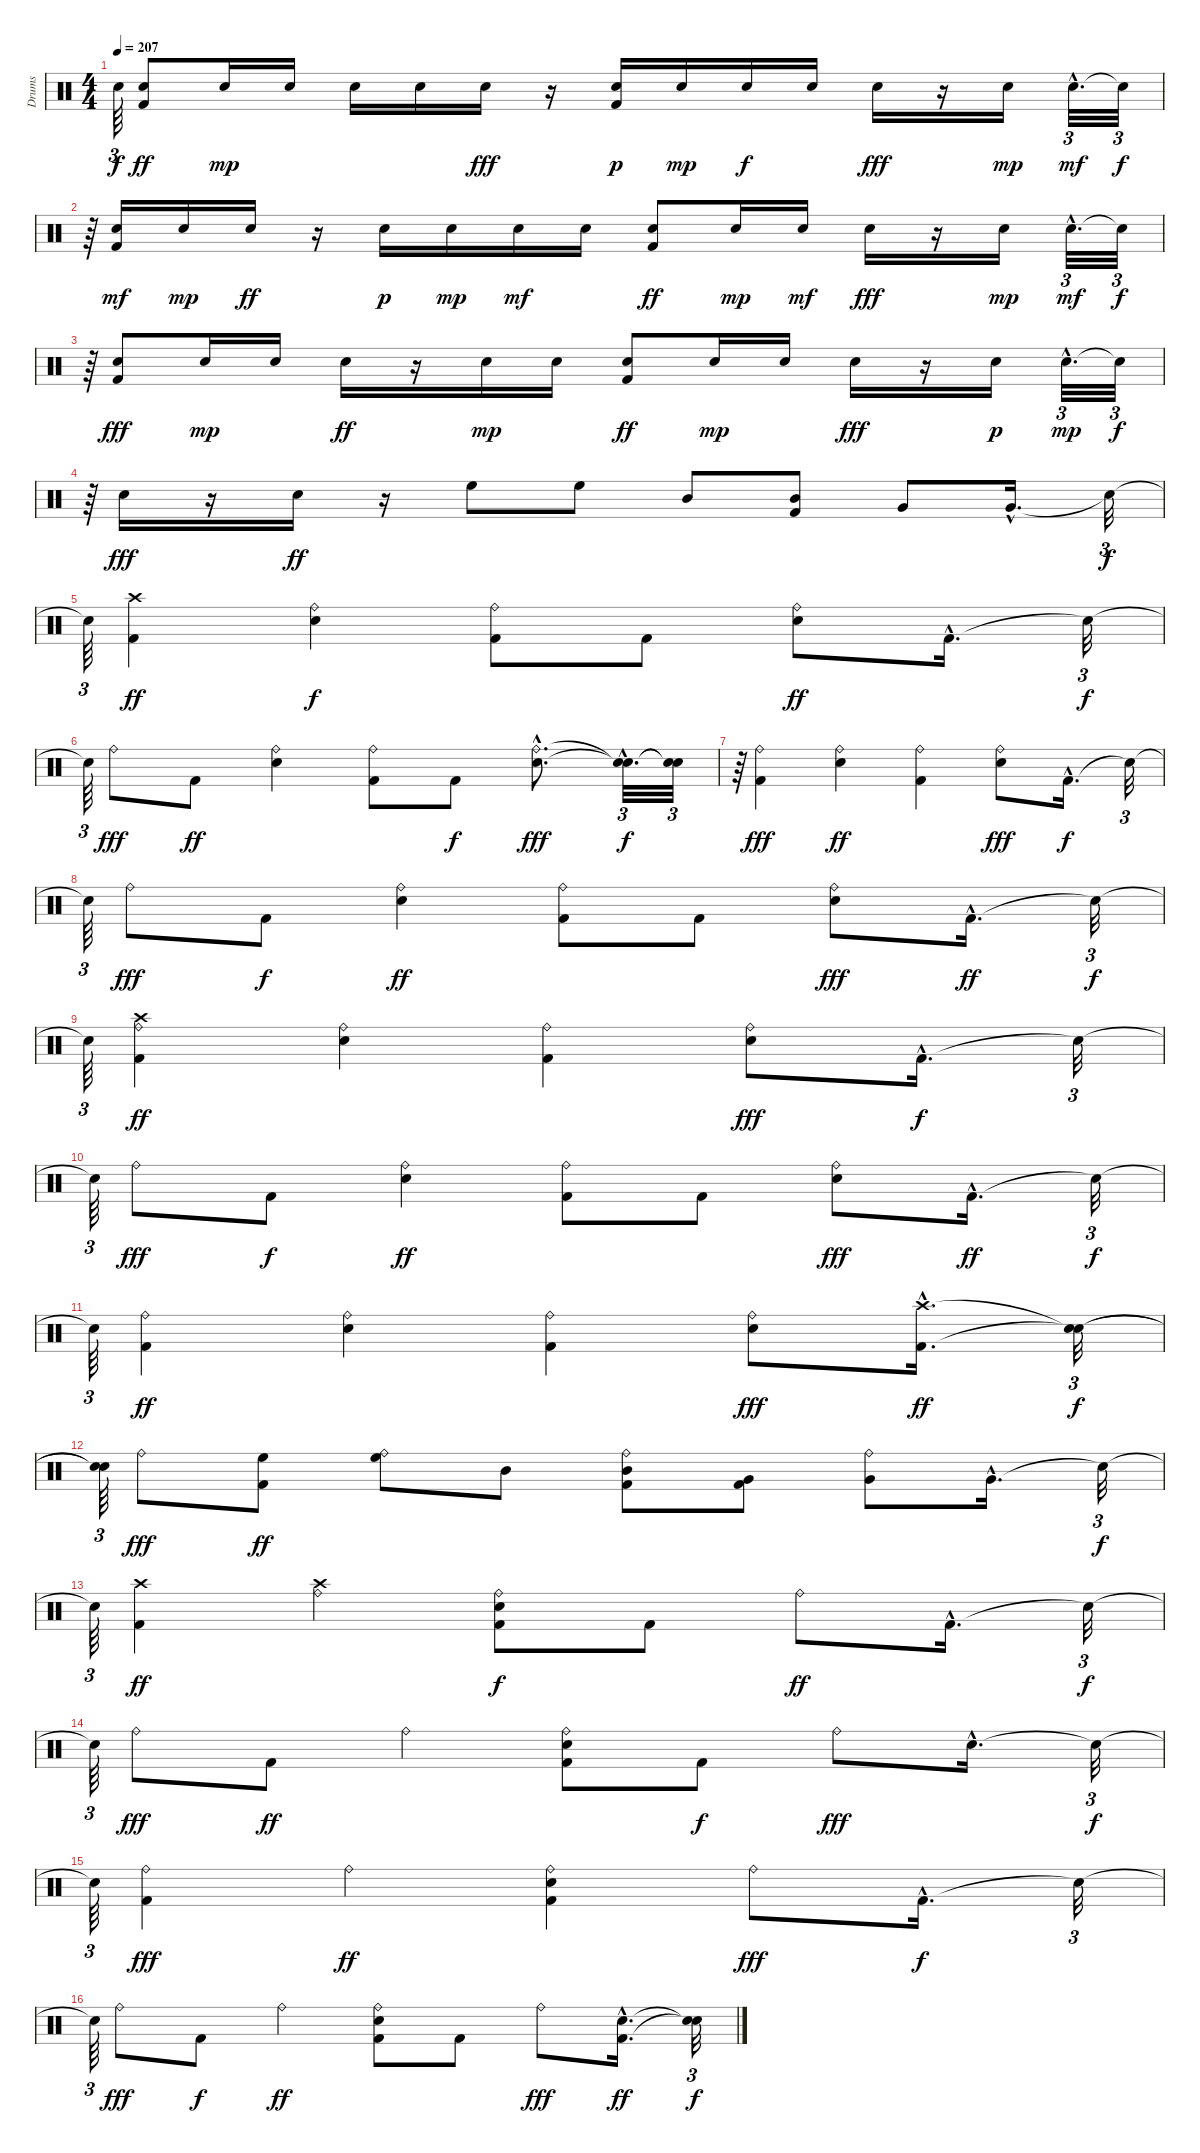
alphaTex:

\track ("Drums" "Drums") {instrument percussion}
\staff {score}
\articulation defaults
\ts (4 4)
\tempo 207
\clef neutral
\ks c "Snare (hit)"{t}.64{tu (3 2) dy f}
("Kick (hit) 2" "Snare (hit) 2").8{dy ff} "Snare (hit) 2".16{dy mp} "Snare (hit) 2".16 "Snare (hit) 2".16 "Snare (hit) 2".16 "Snare (hit) 2".16{dy fff} r.16 ("Kick (hit) 2" "Snare (hit) 2").16{dy p} "Snare (hit) 2".16{dy mp} "Snare (hit) 2".16{dy f} "Snare (hit) 2".16 "Snare (hit) 2".16{dy fff} r.16 "Snare (hit) 2".16{dy mp} "Snare (hit) 2"{hac}.32{d tu (3 2) dy mf} "Snare (hit)"{t}.32{tu (3 2) dy f} |
r.64{tu (3 2)} ("Kick (hit) 2" "Snare (hit) 2").16{dy mf} "Snare (hit) 2".16{dy mp} "Snare (hit) 2".16{dy ff} r.16 "Snare (hit) 2".16{dy p} "Snare (hit) 2".16{dy mp} "Snare (hit) 2".16{dy mf} "Snare (hit) 2".16 ("Kick (hit) 2" "Snare (hit) 2").8{dy ff} "Snare (hit) 2".16{dy mp} "Snare (hit) 2".16{dy mf} "Snare (hit) 2".16{dy fff} r.16 "Snare (hit) 2".16{dy mp} "Snare (hit) 2"{hac}.32{d tu (3 2) dy mf} "Snare (hit)"{t}.32{tu (3 2) dy f} |
r.64{tu (3 2)} ("Kick (hit) 2" "Snare (hit) 2").8{dy fff} "Snare (hit) 2".16{dy mp} "Snare (hit) 2".16 "Snare (hit) 2".16{dy ff} r.16 "Snare (hit) 2".16{dy mp} "Snare (hit) 2".16 ("Kick (hit) 2" "Snare (hit) 2").8{dy ff} "Snare (hit) 2".16{dy mp} "Snare (hit) 2".16 "Snare (hit) 2".16{dy fff} r.16 "Snare (hit) 2".16{dy p} "Snare (hit) 2"{hac}.32{d tu (3 2) dy mp} "Snare (hit)"{t}.32{tu (3 2) dy f} |
r.64{tu (3 2)} "Snare (hit) 2".16{dy fff} r.16 "Snare (hit) 2".16{dy ff} r.16 "High Floor Tom (hit)".8 "High Floor Tom (hit)".8 "Mid Tom (hit)".8 ("Kick (hit) 2" "Mid Tom (hit)").8 "Very Low Tom (hit)".8 "Very Low Tom (hit)"{hac}.16{d} "Snare (hit)"{t}.32{tu (3 2) dy f} |
"Snare (hit)"{t}.64{tu (3 2)} ("Crash high (hit)" "Kick (hit) 2").4{dy ff} ("Ride (bell)" "Snare (hit) 2").4{dy f} ("Kick (hit) 2" "Ride (bell)").8 "Kick (hit) 2".8 ("Snare (hit) 2" "Ride (bell)").8{dy ff} "Kick (hit) 2"{hac}.16{d} "Snare (hit)"{t}.32{tu (3 2) dy f} |
"Snare (hit)"{t}.64{tu (3 2)} "Ride (bell)".8{dy fff} "Kick (hit) 2".8{dy ff} ("Snare (hit) 2" "Ride (bell)").4 ("Kick (hit) 2" "Ride (bell)").8 "Kick (hit) 2".8{dy f} ("Snare (hit) 2"{hac} "Ride (bell)"{hac}).8{d dy fff} ("Snare (hit)"{hac t} "Snare (hit)"{hac t}).32{d tu (3 2) dy f} ("Snare (hit)"{t} "Snare (hit)"{t}).32{tu (3 2)} |
r.64{tu (3 2)} ("Kick (hit) 2" "Ride (bell)").4{dy fff} ("Snare (hit) 2" "Ride (bell)").4{dy ff} ("Kick (hit) 2" "Ride (bell)").4 ("Snare (hit) 2" "Ride (bell)").8{dy fff} "Kick (hit) 2"{hac}.16{d dy f} "Snare (hit)"{t}.32{tu (3 2)} |
"Snare (hit)"{t}.64{tu (3 2)} "Ride (bell)".8{dy fff} "Kick (hit) 2".8{dy f} ("Snare (hit) 2" "Ride (bell)").4{dy ff} ("Kick (hit) 2" "Ride (bell)").8 "Kick (hit) 2".8 ("Snare (hit) 2" "Ride (bell)").8{dy fff} "Kick (hit) 2"{hac}.16{d dy ff} "Snare (hit)"{t}.32{tu (3 2) dy f} |
"Snare (hit)"{t}.64{tu (3 2)} ("Crash high (hit)" "Ride (bell)" "Kick (hit) 2").4{dy ff} ("Snare (hit) 2" "Ride (bell)").4 ("Kick (hit) 2" "Ride (bell)").4 ("Snare (hit) 2" "Ride (bell)").8{dy fff} "Kick (hit) 2"{hac}.16{d dy f} "Snare (hit)"{t}.32{tu (3 2)} |
"Snare (hit)"{t}.64{tu (3 2)} "Ride (bell)".8{dy fff} "Kick (hit) 2".8{dy f} ("Snare (hit) 2" "Ride (bell)").4{dy ff} ("Kick (hit) 2" "Ride (bell)").8 "Kick (hit) 2".8 ("Snare (hit) 2" "Ride (bell)").8{dy fff} "Kick (hit) 2"{hac}.16{d dy ff} "Snare (hit)"{t}.32{tu (3 2) dy f} |
"Snare (hit)"{t}.64{tu (3 2)} ("Ride (bell)" "Kick (hit) 2").4{dy ff} ("Snare (hit) 2" "Ride (bell)").4 ("Kick (hit) 2" "Ride (bell)").4 ("Snare (hit) 2" "Ride (bell)").8{dy fff} ("Crash high (hit)"{hac} "Kick (hit) 2"{hac}).16{d dy ff} ("Snare (hit)"{t} "Snare (hit)"{t}).32{tu (3 2) dy f} |
("Snare (hit)"{t} "Snare (hit)"{t}).64{tu (3 2)} "Ride (bell)".8{dy fff} ("High Floor Tom (hit)" "Kick (hit) 2").8{dy ff} ("Ride (bell)" "High Floor Tom (hit)").8 "Mid Tom (hit)".8 ("Kick (hit) 2" "Ride (bell)" "Mid Tom (hit)").8 ("Kick (hit) 2" "Very Low Tom (hit)").8 ("Ride (bell)" "Very Low Tom (hit)").8 "Very Low Tom (hit)"{hac}.16{d} "Snare (hit)"{t}.32{tu (3 2) dy f} |
"Snare (hit)"{t}.64{tu (3 2)} ("Crash high (hit)" "Kick (hit) 2").4{dy ff} ("Ride (bell)" "Crash high (hit)").4 ("Snare (hit) 2" "Kick (hit) 2" "Ride (bell)").8{dy f} "Kick (hit) 2".8 "Ride (bell)".8{dy ff} "Kick (hit) 2"{hac}.16{d} "Snare (hit)"{t}.32{tu (3 2) dy f} |
"Snare (hit)"{t}.64{tu (3 2)} "Ride (bell)".8{dy fff} "Kick (hit) 2".8{dy ff} "Ride (bell)".4 ("Snare (hit) 2" "Kick (hit) 2" "Ride (bell)").8 "Kick (hit) 2".8{dy f} "Ride (bell)".8{dy fff} "Snare (hit) 2"{hac}.16{d} "Snare (hit)"{t}.32{tu (3 2) dy f} |
"Snare (hit)"{t}.64{tu (3 2)} ("Kick (hit) 2" "Ride (bell)").4{dy fff} "Ride (bell)".4{dy ff} ("Snare (hit) 2" "Kick (hit) 2" "Ride (bell)").4 "Ride (bell)".8{dy fff} "Kick (hit) 2"{hac}.16{d dy f} "Snare (hit)"{t}.32{tu (3 2)} |
"Snare (hit)"{t}.64{tu (3 2)} "Ride (bell)".8{dy fff} "Kick (hit) 2".8{dy f} "Ride (bell)".4{dy ff} ("Snare (hit) 2" "Kick (hit) 2" "Ride (bell)").8 "Kick (hit) 2".8 "Ride (bell)".8{dy fff} ("Snare (hit) 2"{hac} "Kick (hit) 2"{hac}).16{d dy ff} ("Snare (hit)"{t} "Snare (hit)"{t}).32{tu (3 2) dy f}
